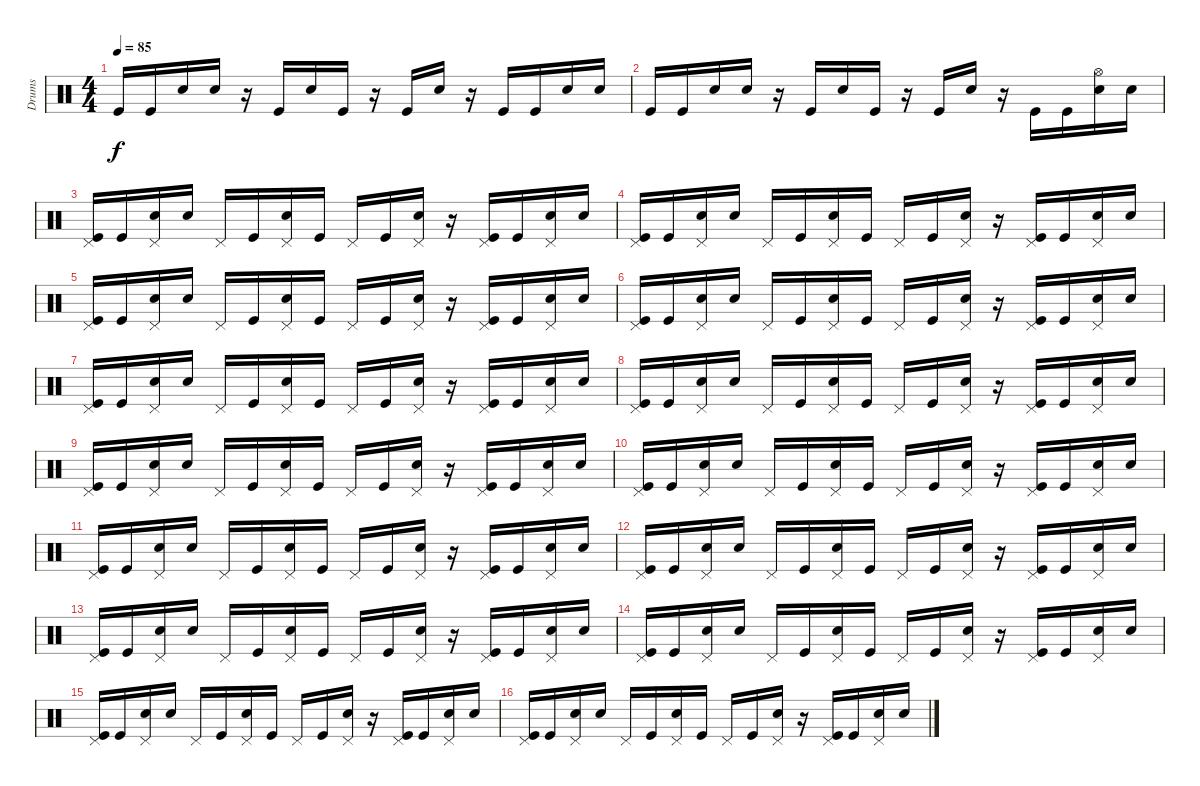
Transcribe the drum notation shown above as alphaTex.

\track ("Drums" "Drums") {instrument percussion}
\staff {score}
\articulation defaults
\ts (4 4)
\tempo 85
\clef neutral
\ks c "Kick (hit)".16{dy f} "Kick (hit)".16 "Snare (hit) 2".16 "Snare (hit) 2".16
r.16 "Kick (hit)".16 "Snare (hit) 2".16 "Kick (hit)".16 r.16 "Kick (hit)".16 "Snare (hit) 2".16 r.16 "Kick (hit)".16 "Kick (hit)".16 "Snare (hit) 2".16 "Snare (hit) 2".16 |
"Kick (hit)".16 "Kick (hit)".16 "Snare (hit) 2".16 "Snare (hit) 2".16 r.16 "Kick (hit)".16 "Snare (hit) 2".16 "Kick (hit)".16 r.16 "Kick (hit)".16 "Snare (hit) 2".16 r.16 "Kick (hit)".16 "Kick (hit)".16 ("Hi-Hat (open)" "Snare (hit) 2").16 "Snare (hit) 2".16 |
("Pedal Hi-Hat (hit)" "Kick (hit)").16 "Kick (hit)".16 ("Pedal Hi-Hat (hit)" "Snare (hit) 2").16 "Snare (hit) 2".16 "Pedal Hi-Hat (hit)".16 "Kick (hit)".16 ("Pedal Hi-Hat (hit)" "Snare (hit) 2").16 "Kick (hit)".16 "Pedal Hi-Hat (hit)".16 "Kick (hit)".16 ("Pedal Hi-Hat (hit)" "Snare (hit) 2").16 r.16 ("Pedal Hi-Hat (hit)" "Kick (hit)").16 "Kick (hit)".16 ("Pedal Hi-Hat (hit)" "Snare (hit) 2").16 "Snare (hit) 2".16 |
("Pedal Hi-Hat (hit)" "Kick (hit)").16 "Kick (hit)".16 ("Pedal Hi-Hat (hit)" "Snare (hit) 2").16 "Snare (hit) 2".16 "Pedal Hi-Hat (hit)".16 "Kick (hit)".16 ("Pedal Hi-Hat (hit)" "Snare (hit) 2").16 "Kick (hit)".16 "Pedal Hi-Hat (hit)".16 "Kick (hit)".16 ("Pedal Hi-Hat (hit)" "Snare (hit) 2").16 r.16 ("Pedal Hi-Hat (hit)" "Kick (hit)").16 "Kick (hit)".16 ("Pedal Hi-Hat (hit)" "Snare (hit) 2").16 "Snare (hit) 2".16 |
("Pedal Hi-Hat (hit)" "Kick (hit)").16 "Kick (hit)".16 ("Pedal Hi-Hat (hit)" "Snare (hit) 2").16 "Snare (hit) 2".16 "Pedal Hi-Hat (hit)".16 "Kick (hit)".16 ("Pedal Hi-Hat (hit)" "Snare (hit) 2").16 "Kick (hit)".16 "Pedal Hi-Hat (hit)".16 "Kick (hit)".16 ("Pedal Hi-Hat (hit)" "Snare (hit) 2").16 r.16 ("Pedal Hi-Hat (hit)" "Kick (hit)").16 "Kick (hit)".16 ("Pedal Hi-Hat (hit)" "Snare (hit) 2").16 "Snare (hit) 2".16 |
("Pedal Hi-Hat (hit)" "Kick (hit)").16 "Kick (hit)".16 ("Pedal Hi-Hat (hit)" "Snare (hit) 2").16 "Snare (hit) 2".16 "Pedal Hi-Hat (hit)".16 "Kick (hit)".16 ("Pedal Hi-Hat (hit)" "Snare (hit) 2").16 "Kick (hit)".16 "Pedal Hi-Hat (hit)".16 "Kick (hit)".16 ("Pedal Hi-Hat (hit)" "Snare (hit) 2").16 r.16 ("Pedal Hi-Hat (hit)" "Kick (hit)").16 "Kick (hit)".16 ("Pedal Hi-Hat (hit)" "Snare (hit) 2").16 "Snare (hit) 2".16 |
("Pedal Hi-Hat (hit)" "Kick (hit)").16 "Kick (hit)".16 ("Pedal Hi-Hat (hit)" "Snare (hit) 2").16 "Snare (hit) 2".16 "Pedal Hi-Hat (hit)".16 "Kick (hit)".16 ("Pedal Hi-Hat (hit)" "Snare (hit) 2").16 "Kick (hit)".16 "Pedal Hi-Hat (hit)".16 "Kick (hit)".16 ("Pedal Hi-Hat (hit)" "Snare (hit) 2").16 r.16 ("Pedal Hi-Hat (hit)" "Kick (hit)").16 "Kick (hit)".16 ("Pedal Hi-Hat (hit)" "Snare (hit) 2").16 "Snare (hit) 2".16 |
("Pedal Hi-Hat (hit)" "Kick (hit)").16 "Kick (hit)".16 ("Pedal Hi-Hat (hit)" "Snare (hit) 2").16 "Snare (hit) 2".16 "Pedal Hi-Hat (hit)".16 "Kick (hit)".16 ("Pedal Hi-Hat (hit)" "Snare (hit) 2").16 "Kick (hit)".16 "Pedal Hi-Hat (hit)".16 "Kick (hit)".16 ("Pedal Hi-Hat (hit)" "Snare (hit) 2").16 r.16 ("Pedal Hi-Hat (hit)" "Kick (hit)").16 "Kick (hit)".16 ("Pedal Hi-Hat (hit)" "Snare (hit) 2").16 "Snare (hit) 2".16 |
("Pedal Hi-Hat (hit)" "Kick (hit)").16 "Kick (hit)".16 ("Pedal Hi-Hat (hit)" "Snare (hit) 2").16 "Snare (hit) 2".16 "Pedal Hi-Hat (hit)".16 "Kick (hit)".16 ("Pedal Hi-Hat (hit)" "Snare (hit) 2").16 "Kick (hit)".16 "Pedal Hi-Hat (hit)".16 "Kick (hit)".16 ("Pedal Hi-Hat (hit)" "Snare (hit) 2").16 r.16 ("Pedal Hi-Hat (hit)" "Kick (hit)").16 "Kick (hit)".16 ("Pedal Hi-Hat (hit)" "Snare (hit) 2").16 "Snare (hit) 2".16 |
("Pedal Hi-Hat (hit)" "Kick (hit)").16 "Kick (hit)".16 ("Pedal Hi-Hat (hit)" "Snare (hit) 2").16 "Snare (hit) 2".16 "Pedal Hi-Hat (hit)".16 "Kick (hit)".16 ("Pedal Hi-Hat (hit)" "Snare (hit) 2").16 "Kick (hit)".16 "Pedal Hi-Hat (hit)".16 "Kick (hit)".16 ("Pedal Hi-Hat (hit)" "Snare (hit) 2").16 r.16 ("Pedal Hi-Hat (hit)" "Kick (hit)").16 "Kick (hit)".16 ("Pedal Hi-Hat (hit)" "Snare (hit) 2").16 "Snare (hit) 2".16 |
("Pedal Hi-Hat (hit)" "Kick (hit)").16 "Kick (hit)".16 ("Pedal Hi-Hat (hit)" "Snare (hit) 2").16 "Snare (hit) 2".16 "Pedal Hi-Hat (hit)".16 "Kick (hit)".16 ("Pedal Hi-Hat (hit)" "Snare (hit) 2").16 "Kick (hit)".16 "Pedal Hi-Hat (hit)".16 "Kick (hit)".16 ("Pedal Hi-Hat (hit)" "Snare (hit) 2").16 r.16 ("Pedal Hi-Hat (hit)" "Kick (hit)").16 "Kick (hit)".16 ("Pedal Hi-Hat (hit)" "Snare (hit) 2").16 "Snare (hit) 2".16 |
("Pedal Hi-Hat (hit)" "Kick (hit)").16 "Kick (hit)".16 ("Pedal Hi-Hat (hit)" "Snare (hit) 2").16 "Snare (hit) 2".16 "Pedal Hi-Hat (hit)".16 "Kick (hit)".16 ("Pedal Hi-Hat (hit)" "Snare (hit) 2").16 "Kick (hit)".16 "Pedal Hi-Hat (hit)".16 "Kick (hit)".16 ("Pedal Hi-Hat (hit)" "Snare (hit) 2").16 r.16 ("Pedal Hi-Hat (hit)" "Kick (hit)").16 "Kick (hit)".16 ("Pedal Hi-Hat (hit)" "Snare (hit) 2").16 "Snare (hit) 2".16 |
("Pedal Hi-Hat (hit)" "Kick (hit)").16 "Kick (hit)".16 ("Pedal Hi-Hat (hit)" "Snare (hit) 2").16 "Snare (hit) 2".16 "Pedal Hi-Hat (hit)".16 "Kick (hit)".16 ("Pedal Hi-Hat (hit)" "Snare (hit) 2").16 "Kick (hit)".16 "Pedal Hi-Hat (hit)".16 "Kick (hit)".16 ("Pedal Hi-Hat (hit)" "Snare (hit) 2").16 r.16 ("Pedal Hi-Hat (hit)" "Kick (hit)").16 "Kick (hit)".16 ("Pedal Hi-Hat (hit)" "Snare (hit) 2").16 "Snare (hit) 2".16 |
("Pedal Hi-Hat (hit)" "Kick (hit)").16 "Kick (hit)".16 ("Pedal Hi-Hat (hit)" "Snare (hit) 2").16 "Snare (hit) 2".16 "Pedal Hi-Hat (hit)".16 "Kick (hit)".16 ("Pedal Hi-Hat (hit)" "Snare (hit) 2").16 "Kick (hit)".16 "Pedal Hi-Hat (hit)".16 "Kick (hit)".16 ("Pedal Hi-Hat (hit)" "Snare (hit) 2").16 r.16 ("Pedal Hi-Hat (hit)" "Kick (hit)").16 "Kick (hit)".16 ("Pedal Hi-Hat (hit)" "Snare (hit) 2").16 "Snare (hit) 2".16 |
("Pedal Hi-Hat (hit)" "Kick (hit)").16 "Kick (hit)".16 ("Pedal Hi-Hat (hit)" "Snare (hit) 2").16 "Snare (hit) 2".16 "Pedal Hi-Hat (hit)".16 "Kick (hit)".16 ("Pedal Hi-Hat (hit)" "Snare (hit) 2").16 "Kick (hit)".16 "Pedal Hi-Hat (hit)".16 "Kick (hit)".16 ("Pedal Hi-Hat (hit)" "Snare (hit) 2").16 r.16 ("Pedal Hi-Hat (hit)" "Kick (hit)").16 "Kick (hit)".16 ("Pedal Hi-Hat (hit)" "Snare (hit) 2").16 "Snare (hit) 2".16 |
("Pedal Hi-Hat (hit)" "Kick (hit)").16 "Kick (hit)".16 ("Pedal Hi-Hat (hit)" "Snare (hit) 2").16 "Snare (hit) 2".16 "Pedal Hi-Hat (hit)".16 "Kick (hit)".16 ("Pedal Hi-Hat (hit)" "Snare (hit) 2").16 "Kick (hit)".16 "Pedal Hi-Hat (hit)".16 "Kick (hit)".16 ("Pedal Hi-Hat (hit)" "Snare (hit) 2").16 r.16 ("Pedal Hi-Hat (hit)" "Kick (hit)").16 "Kick (hit)".16 ("Pedal Hi-Hat (hit)" "Snare (hit) 2").16 "Snare (hit) 2".16
